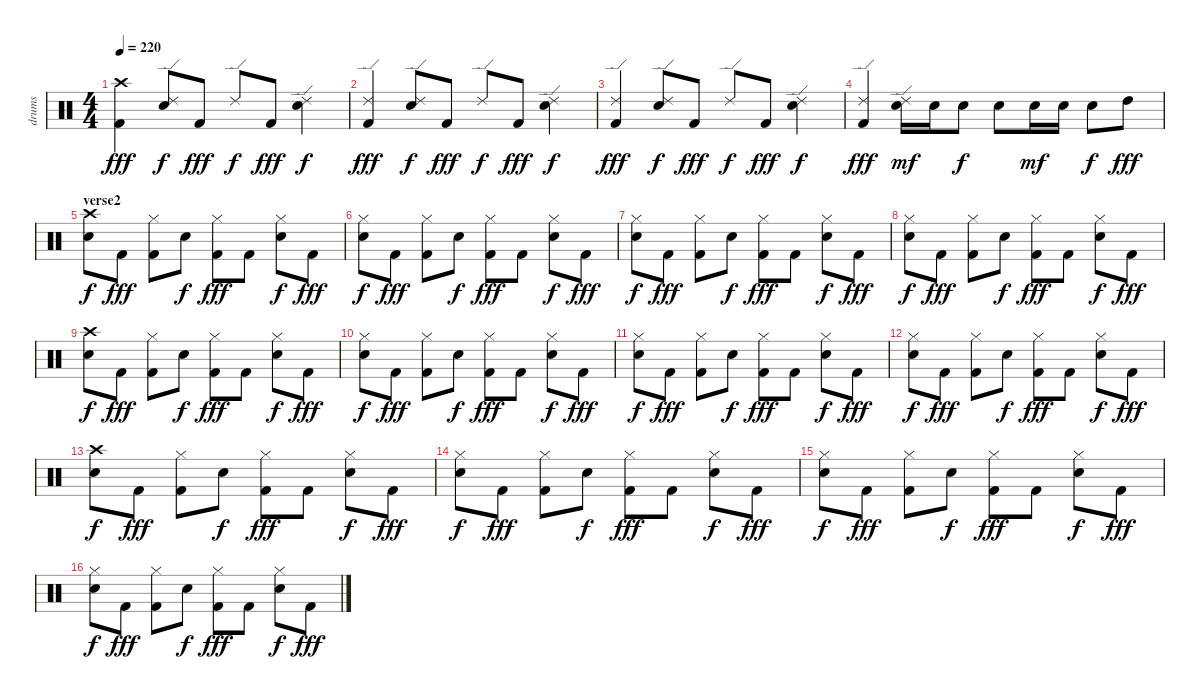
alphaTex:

\track ("drums" "drums") {instrument percussion}
\staff {score}
\articulation defaults
\ts (4 4)
\tempo 220
\clef neutral
\ks c
("Crash high (hit)" "Kick (hit) 2").4{dy fff} ("Ride (edge) 2" "Snare (hit) 2").8{dy f} "Kick (hit) 2".8{dy fff} "Ride (edge) 2".8{dy f} "Kick (hit) 2".8{dy fff} ("Ride (edge) 2" "Snare (hit) 2").4{dy f} |
("Ride (edge) 2" "Kick (hit) 2").4{dy fff} ("Ride (edge) 2" "Snare (hit) 2").8{dy f} "Kick (hit) 2".8{dy fff} "Ride (edge) 2".8{dy f} "Kick (hit) 2".8{dy fff} ("Ride (edge) 2" "Snare (hit) 2").4{dy f} |
("Ride (edge) 2" "Kick (hit) 2").4{dy fff} ("Ride (edge) 2" "Snare (hit) 2").8{dy f} "Kick (hit) 2".8{dy fff} "Ride (edge) 2".8{dy f} "Kick (hit) 2".8{dy fff} ("Ride (edge) 2" "Snare (hit) 2").4{dy f} |
("Ride (edge) 2" "Kick (hit) 2").4{dy fff} ("Ride (edge) 2" "Snare (hit) 2").16{dy mf} "Snare (hit) 2".16 "Snare (hit) 2".8{dy f} "Snare (hit) 2".8 "Snare (hit) 2".16{dy mf} "Snare (hit) 2".16 "Snare (hit) 2".8{dy f} "High Tom (hit)".8{dy fff} |
\section ("" "verse2")
("Crash high (hit)" "Snare (hit) 2").8{dy f} "Kick (hit) 2".8{dy fff} ("Hi-Hat (closed)" "Kick (hit) 2").8 "Snare (hit) 2".8{dy f} ("Hi-Hat (closed)" "Kick (hit) 2").8{dy fff} "Kick (hit) 2".8 ("Hi-Hat (closed)" "Snare (hit) 2").8{dy f} "Kick (hit) 2".8{dy fff} |
("Hi-Hat (closed)" "Snare (hit) 2").8{dy f} "Kick (hit) 2".8{dy fff} ("Hi-Hat (closed)" "Kick (hit) 2").8 "Snare (hit) 2".8{dy f} ("Hi-Hat (closed)" "Kick (hit) 2").8{dy fff} "Kick (hit) 2".8 ("Hi-Hat (closed)" "Snare (hit) 2").8{dy f} "Kick (hit) 2".8{dy fff} |
("Hi-Hat (closed)" "Snare (hit) 2").8{dy f} "Kick (hit) 2".8{dy fff} ("Hi-Hat (closed)" "Kick (hit) 2").8 "Snare (hit) 2".8{dy f} ("Hi-Hat (closed)" "Kick (hit) 2").8{dy fff} "Kick (hit) 2".8 ("Hi-Hat (closed)" "Snare (hit) 2").8{dy f} "Kick (hit) 2".8{dy fff} |
("Hi-Hat (closed)" "Snare (hit) 2").8{dy f} "Kick (hit) 2".8{dy fff} ("Hi-Hat (closed)" "Kick (hit) 2").8 "Snare (hit) 2".8{dy f} ("Hi-Hat (closed)" "Kick (hit) 2").8{dy fff} "Kick (hit) 2".8 ("Hi-Hat (closed)" "Snare (hit) 2").8{dy f} "Kick (hit) 2".8{dy fff} |
("Crash high (hit)" "Snare (hit) 2").8{dy f} "Kick (hit) 2".8{dy fff} ("Hi-Hat (closed)" "Kick (hit) 2").8 "Snare (hit) 2".8{dy f} ("Hi-Hat (closed)" "Kick (hit) 2").8{dy fff} "Kick (hit) 2".8 ("Hi-Hat (closed)" "Snare (hit) 2").8{dy f} "Kick (hit) 2".8{dy fff} |
("Hi-Hat (closed)" "Snare (hit) 2").8{dy f} "Kick (hit) 2".8{dy fff} ("Hi-Hat (closed)" "Kick (hit) 2").8 "Snare (hit) 2".8{dy f} ("Hi-Hat (closed)" "Kick (hit) 2").8{dy fff} "Kick (hit) 2".8 ("Hi-Hat (closed)" "Snare (hit) 2").8{dy f} "Kick (hit) 2".8{dy fff} |
("Hi-Hat (closed)" "Snare (hit) 2").8{dy f} "Kick (hit) 2".8{dy fff} ("Hi-Hat (closed)" "Kick (hit) 2").8 "Snare (hit) 2".8{dy f} ("Hi-Hat (closed)" "Kick (hit) 2").8{dy fff} "Kick (hit) 2".8 ("Hi-Hat (closed)" "Snare (hit) 2").8{dy f} "Kick (hit) 2".8{dy fff} |
("Hi-Hat (closed)" "Snare (hit) 2").8{dy f} "Kick (hit) 2".8{dy fff} ("Hi-Hat (closed)" "Kick (hit) 2").8 "Snare (hit) 2".8{dy f} ("Hi-Hat (closed)" "Kick (hit) 2").8{dy fff} "Kick (hit) 2".8 ("Hi-Hat (closed)" "Snare (hit) 2").8{dy f} "Kick (hit) 2".8{dy fff} |
("Crash high (hit)" "Snare (hit) 2").8{dy f} "Kick (hit) 2".8{dy fff} ("Hi-Hat (closed)" "Kick (hit) 2").8 "Snare (hit) 2".8{dy f} ("Hi-Hat (closed)" "Kick (hit) 2").8{dy fff} "Kick (hit) 2".8 ("Hi-Hat (closed)" "Snare (hit) 2").8{dy f} "Kick (hit) 2".8{dy fff} |
("Hi-Hat (closed)" "Snare (hit) 2").8{dy f} "Kick (hit) 2".8{dy fff} ("Hi-Hat (closed)" "Kick (hit) 2").8 "Snare (hit) 2".8{dy f} ("Hi-Hat (closed)" "Kick (hit) 2").8{dy fff} "Kick (hit) 2".8 ("Hi-Hat (closed)" "Snare (hit) 2").8{dy f} "Kick (hit) 2".8{dy fff} |
("Hi-Hat (closed)" "Snare (hit) 2").8{dy f} "Kick (hit) 2".8{dy fff} ("Hi-Hat (closed)" "Kick (hit) 2").8 "Snare (hit) 2".8{dy f} ("Hi-Hat (closed)" "Kick (hit) 2").8{dy fff} "Kick (hit) 2".8 ("Hi-Hat (closed)" "Snare (hit) 2").8{dy f} "Kick (hit) 2".8{dy fff} |
("Hi-Hat (closed)" "Snare (hit) 2").8{dy f} "Kick (hit) 2".8{dy fff} ("Hi-Hat (closed)" "Kick (hit) 2").8 "Snare (hit) 2".8{dy f} ("Hi-Hat (closed)" "Kick (hit) 2").8{dy fff} "Kick (hit) 2".8 ("Hi-Hat (closed)" "Snare (hit) 2").8{dy f} "Kick (hit) 2".8{dy fff}
